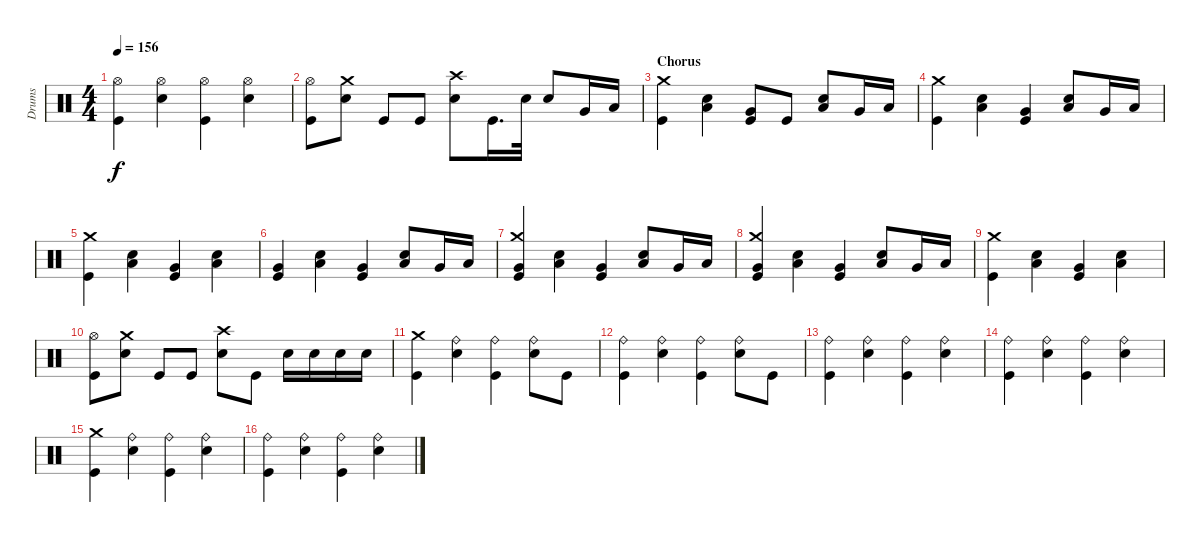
\track ("Drums" "Drums") {instrument percussion}
\staff {score}
\articulation defaults
\ts (4 4)
\tempo 156
\clef neutral
\ks c
("Kick (hit)" "Hi-Hat (open)").4{dy f} ("Electric Snare (hit)" "Hi-Hat (open)").4 ("Kick (hit)" "Hi-Hat (open)").4 ("Electric Snare (hit)" "Hi-Hat (open)").4 |
("Kick (hit)" "Hi-Hat (open)").8 ("Electric Snare (hit)" "Crash medium (hit)").8 "Kick (hit)".8 "Kick (hit)".8 ("Crash high (hit)" "Electric Snare (hit)").8 "Kick (hit)".16{d} "Electric Snare (hit)".32 "Electric Snare (hit)".8 "Very Low Tom (hit)".16 "Low Floor Tom (hit)".16 |
\section ("" "Chorus")
("Kick (hit)" "Crash medium (hit)").4 ("Low Tom (hit)" "Electric Snare (hit)").4 ("Very Low Tom (hit)" "Kick (hit)").8 "Kick (hit)".8 ("Low Tom (hit)" "Electric Snare (hit)").8 "Very Low Tom (hit)".16 "Low Floor Tom (hit)".16 |
("Kick (hit)" "Crash medium (hit)").4 ("Low Tom (hit)" "Electric Snare (hit)").4 ("Very Low Tom (hit)" "Kick (hit)").4 ("Low Tom (hit)" "Electric Snare (hit)").8 "Very Low Tom (hit)".16 "Low Floor Tom (hit)".16 |
("Crash medium (hit)" "Kick (hit)").4 ("Low Tom (hit)" "Electric Snare (hit)").4 ("Kick (hit)" "Very Low Tom (hit)").4 ("Electric Snare (hit)" "Low Tom (hit)").4 |
("Kick (hit)" "Very Low Tom (hit)").4 ("Electric Snare (hit)" "Low Tom (hit)").4 ("Kick (hit)" "Very Low Tom (hit)").4 ("Low Tom (hit)" "Electric Snare (hit)").8 "Very Low Tom (hit)".16 "Low Floor Tom (hit)".16 |
("Crash medium (hit)" "Kick (hit)" "Very Low Tom (hit)").4 ("Electric Snare (hit)" "Low Tom (hit)").4 ("Kick (hit)" "Very Low Tom (hit)").4 ("Low Tom (hit)" "Electric Snare (hit)").8 "Very Low Tom (hit)".16 "Low Floor Tom (hit)".16 |
("Crash medium (hit)" "Kick (hit)" "Very Low Tom (hit)").4 ("Electric Snare (hit)" "Low Tom (hit)").4 ("Kick (hit)" "Very Low Tom (hit)").4 ("Low Tom (hit)" "Electric Snare (hit)").8 "Very Low Tom (hit)".16 "Low Floor Tom (hit)".16 |
("Crash medium (hit)" "Kick (hit)").4 ("Low Tom (hit)" "Electric Snare (hit)").4 ("Kick (hit)" "Very Low Tom (hit)").4 ("Electric Snare (hit)" "Low Tom (hit)").4 |
("Kick (hit)" "Hi-Hat (open)").8 ("Electric Snare (hit)" "Crash medium (hit)").8 "Kick (hit)".8 "Kick (hit)".8 ("Crash high (hit)" "Electric Snare (hit)").8 "Kick (hit)".8 "Electric Snare (hit)".16 "Electric Snare (hit)".16 "Electric Snare (hit)".16 "Electric Snare (hit)".16 |
("Crash medium (hit)" "Kick (hit)").4 ("Ride (bell)" "Electric Snare (hit)").4 ("Ride (bell)" "Kick (hit)").4 ("Ride (bell)" "Electric Snare (hit)").8 "Kick (hit)".8 |
("Ride (bell)" "Kick (hit)").4 ("Ride (bell)" "Electric Snare (hit)").4 ("Ride (bell)" "Kick (hit)").4 ("Ride (bell)" "Electric Snare (hit)").8 "Kick (hit)".8 |
("Ride (bell)" "Kick (hit)").4 ("Ride (bell)" "Electric Snare (hit)").4 ("Ride (bell)" "Kick (hit)").4 ("Ride (bell)" "Electric Snare (hit)").4 |
("Ride (bell)" "Kick (hit)").4 ("Ride (bell)" "Electric Snare (hit)").4 ("Ride (bell)" "Kick (hit)").4 ("Ride (bell)" "Electric Snare (hit)").4 |
("Crash medium (hit)" "Kick (hit)").4 ("Ride (bell)" "Electric Snare (hit)").4 ("Ride (bell)" "Kick (hit)").4 ("Ride (bell)" "Electric Snare (hit)").4 |
("Ride (bell)" "Kick (hit)").4 ("Ride (bell)" "Electric Snare (hit)").4 ("Ride (bell)" "Kick (hit)").4 ("Ride (bell)" "Electric Snare (hit)").4
